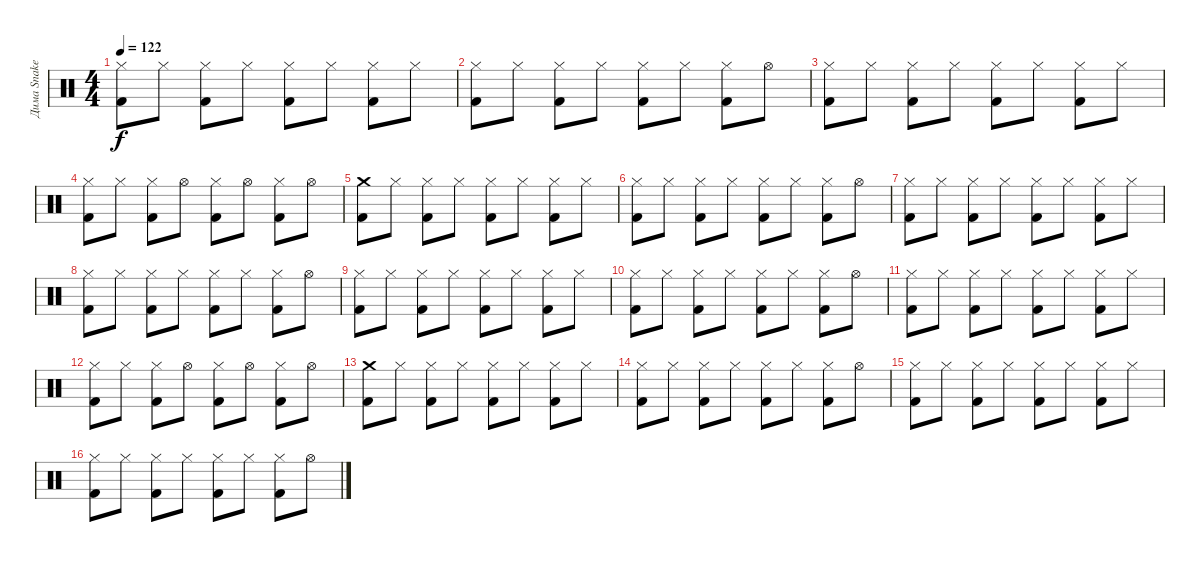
\track ("Дима Snake Хакимов" "Дима Snake") {instrument percussion}
\staff {score}
\articulation defaults
\ts (4 4)
\tempo 122
\clef neutral
\ks c
("Hi-Hat (closed)" "Kick (hit) 2").8{dy f} "Hi-Hat (closed)".8 ("Hi-Hat (closed)" "Kick (hit) 2").8 "Hi-Hat (closed)".8 ("Hi-Hat (closed)" "Kick (hit) 2").8 "Hi-Hat (closed)".8 ("Hi-Hat (closed)" "Kick (hit) 2").8 "Hi-Hat (closed)".8 |
("Hi-Hat (closed)" "Kick (hit) 2").8 "Hi-Hat (closed)".8 ("Hi-Hat (closed)" "Kick (hit) 2").8 "Hi-Hat (closed)".8 ("Hi-Hat (closed)" "Kick (hit) 2").8 "Hi-Hat (closed)".8 ("Hi-Hat (closed)" "Kick (hit) 2").8 "Hi-Hat (open)".8 |
("Hi-Hat (closed)" "Kick (hit) 2").8 "Hi-Hat (closed)".8 ("Hi-Hat (closed)" "Kick (hit) 2").8 "Hi-Hat (closed)".8 ("Hi-Hat (closed)" "Kick (hit) 2").8 "Hi-Hat (closed)".8 ("Hi-Hat (closed)" "Kick (hit) 2").8 "Hi-Hat (closed)".8 |
("Hi-Hat (closed)" "Kick (hit) 2").8 "Hi-Hat (closed)".8 ("Hi-Hat (closed)" "Kick (hit) 2").8 "Hi-Hat (open)".8 ("Hi-Hat (closed)" "Kick (hit) 2").8 "Hi-Hat (open)".8 ("Hi-Hat (closed)" "Kick (hit) 2").8 "Hi-Hat (open)".8 |
("Crash medium (hit)" "Kick (hit) 2").8 "Hi-Hat (closed)".8 ("Hi-Hat (closed)" "Kick (hit) 2").8 "Hi-Hat (closed)".8 ("Hi-Hat (closed)" "Kick (hit) 2").8 "Hi-Hat (closed)".8 ("Hi-Hat (closed)" "Kick (hit) 2").8 "Hi-Hat (closed)".8 |
("Hi-Hat (closed)" "Kick (hit) 2").8 "Hi-Hat (closed)".8 ("Hi-Hat (closed)" "Kick (hit) 2").8 "Hi-Hat (closed)".8 ("Hi-Hat (closed)" "Kick (hit) 2").8 "Hi-Hat (closed)".8 ("Hi-Hat (closed)" "Kick (hit) 2").8 "Hi-Hat (open)".8 |
("Hi-Hat (closed)" "Kick (hit) 2").8 "Hi-Hat (closed)".8 ("Hi-Hat (closed)" "Kick (hit) 2").8 "Hi-Hat (closed)".8 ("Hi-Hat (closed)" "Kick (hit) 2").8 "Hi-Hat (closed)".8 ("Hi-Hat (closed)" "Kick (hit) 2").8 "Hi-Hat (closed)".8 |
("Hi-Hat (closed)" "Kick (hit) 2").8 "Hi-Hat (closed)".8 ("Hi-Hat (closed)" "Kick (hit) 2").8 "Hi-Hat (closed)".8 ("Hi-Hat (closed)" "Kick (hit) 2").8 "Hi-Hat (closed)".8 ("Hi-Hat (closed)" "Kick (hit) 2").8 "Hi-Hat (open)".8 |
("Hi-Hat (closed)" "Kick (hit) 2").8 "Hi-Hat (closed)".8 ("Hi-Hat (closed)" "Kick (hit) 2").8 "Hi-Hat (closed)".8 ("Hi-Hat (closed)" "Kick (hit) 2").8 "Hi-Hat (closed)".8 ("Hi-Hat (closed)" "Kick (hit) 2").8 "Hi-Hat (closed)".8 |
("Hi-Hat (closed)" "Kick (hit) 2").8 "Hi-Hat (closed)".8 ("Hi-Hat (closed)" "Kick (hit) 2").8 "Hi-Hat (closed)".8 ("Hi-Hat (closed)" "Kick (hit) 2").8 "Hi-Hat (closed)".8 ("Hi-Hat (closed)" "Kick (hit) 2").8 "Hi-Hat (open)".8 |
("Hi-Hat (closed)" "Kick (hit) 2").8 "Hi-Hat (closed)".8 ("Hi-Hat (closed)" "Kick (hit) 2").8 "Hi-Hat (closed)".8 ("Hi-Hat (closed)" "Kick (hit) 2").8 "Hi-Hat (closed)".8 ("Hi-Hat (closed)" "Kick (hit) 2").8 "Hi-Hat (closed)".8 |
("Hi-Hat (closed)" "Kick (hit) 2").8 "Hi-Hat (closed)".8 ("Hi-Hat (closed)" "Kick (hit) 2").8 "Hi-Hat (open)".8 ("Hi-Hat (closed)" "Kick (hit) 2").8 "Hi-Hat (open)".8 ("Hi-Hat (closed)" "Kick (hit) 2").8 "Hi-Hat (open)".8 |
("Crash medium (hit)" "Kick (hit) 2").8 "Hi-Hat (closed)".8 ("Hi-Hat (closed)" "Kick (hit) 2").8 "Hi-Hat (closed)".8 ("Hi-Hat (closed)" "Kick (hit) 2").8 "Hi-Hat (closed)".8 ("Hi-Hat (closed)" "Kick (hit) 2").8 "Hi-Hat (closed)".8 |
("Hi-Hat (closed)" "Kick (hit) 2").8 "Hi-Hat (closed)".8 ("Hi-Hat (closed)" "Kick (hit) 2").8 "Hi-Hat (closed)".8 ("Hi-Hat (closed)" "Kick (hit) 2").8 "Hi-Hat (closed)".8 ("Hi-Hat (closed)" "Kick (hit) 2").8 "Hi-Hat (open)".8 |
("Hi-Hat (closed)" "Kick (hit) 2").8 "Hi-Hat (closed)".8 ("Hi-Hat (closed)" "Kick (hit) 2").8 "Hi-Hat (closed)".8 ("Hi-Hat (closed)" "Kick (hit) 2").8 "Hi-Hat (closed)".8 ("Hi-Hat (closed)" "Kick (hit) 2").8 "Hi-Hat (closed)".8 |
("Hi-Hat (closed)" "Kick (hit) 2").8 "Hi-Hat (closed)".8 ("Hi-Hat (closed)" "Kick (hit) 2").8 "Hi-Hat (closed)".8 ("Hi-Hat (closed)" "Kick (hit) 2").8 "Hi-Hat (closed)".8 ("Hi-Hat (closed)" "Kick (hit) 2").8 "Hi-Hat (open)".8
